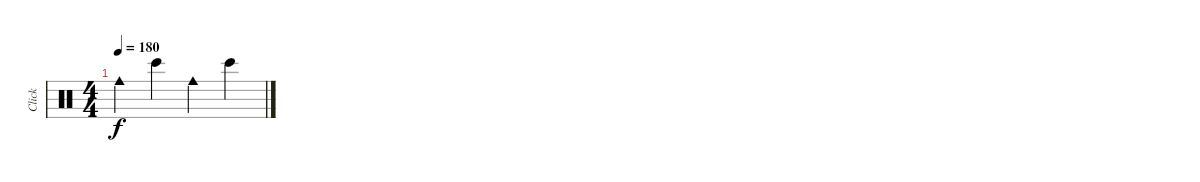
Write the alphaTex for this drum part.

\track ("Click" "Click") {instrument percussion}
\staff {score}
\articulation defaults
\ts (4 4)
\tempo 180
\clef neutral
\ks c "Cowbell medium (hit)".4{dy f} "Bongo High (hit)".4 "Cowbell medium (hit)".4 "Bongo High (hit)".4
